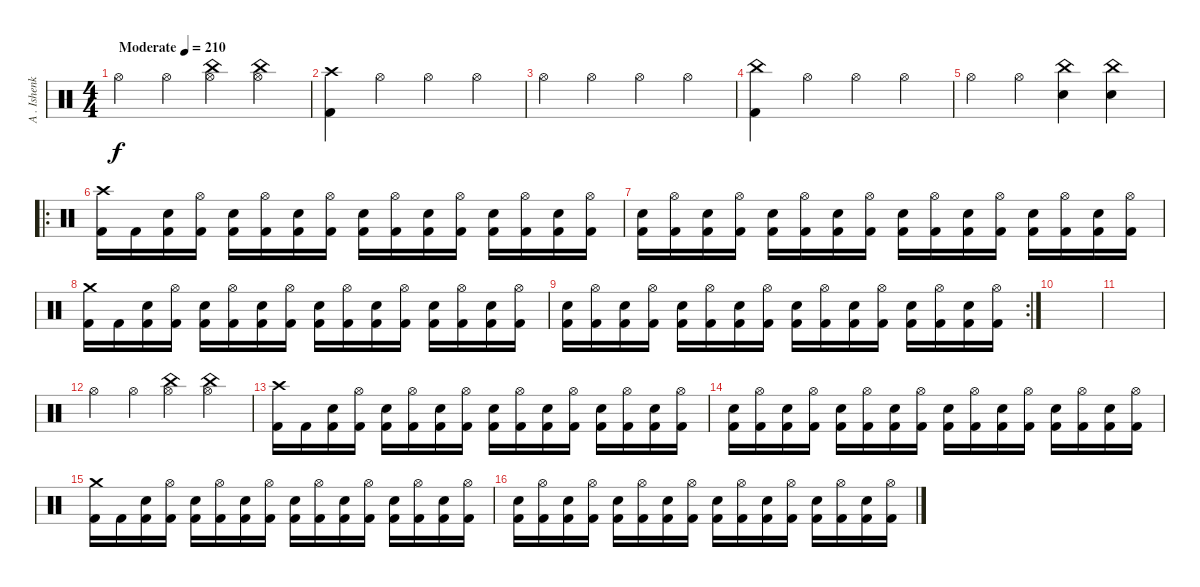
\track ("A . Ishenko" "A . Ishenk") {instrument percussion}
\staff {score}
\articulation defaults
\ts (4 4)
\tempo (210 "Moderate")
\clef neutral
\ks c "Hi-Hat (open)".4{dy f} "Hi-Hat (open)".4
("Hi-Hat (open)" "China (hit)").4 ("Hi-Hat (open)" "China (hit)").4 |
("Crash high (hit)" "Kick (hit) 2").4 "Hi-Hat (open)".4 "Hi-Hat (open)".4 "Hi-Hat (open)".4 |
"Hi-Hat (open)".4 "Hi-Hat (open)".4 "Hi-Hat (open)".4 "Hi-Hat (open)".4 |
("China (hit)" "Kick (hit) 2").4 "Hi-Hat (open)".4 "Hi-Hat (open)".4 "Hi-Hat (open)".4 |
"Hi-Hat (open)".4 "Hi-Hat (open)".4 ("Electric Snare (hit)" "China (hit)").4 ("Electric Snare (hit)" "China (hit)").4 |
\ro
("Crash high (hit)" "Kick (hit) 2").16 "Kick (hit) 2".16 ("Electric Snare (hit)" "Kick (hit) 2").16 ("Hi-Hat (open)" "Kick (hit) 2").16 ("Electric Snare (hit)" "Kick (hit) 2").16 ("Hi-Hat (open)" "Kick (hit) 2").16 ("Electric Snare (hit)" "Kick (hit) 2").16 ("Hi-Hat (open)" "Kick (hit) 2").16 ("Electric Snare (hit)" "Kick (hit) 2").16 ("Hi-Hat (open)" "Kick (hit) 2").16 ("Electric Snare (hit)" "Kick (hit) 2").16 ("Hi-Hat (open)" "Kick (hit) 2").16 ("Electric Snare (hit)" "Kick (hit) 2").16 ("Hi-Hat (open)" "Kick (hit) 2").16 ("Electric Snare (hit)" "Kick (hit) 2").16 ("Hi-Hat (open)" "Kick (hit) 2").16 |
("Electric Snare (hit)" "Kick (hit) 2").16 ("Hi-Hat (open)" "Kick (hit) 2").16 ("Electric Snare (hit)" "Kick (hit) 2").16 ("Hi-Hat (open)" "Kick (hit) 2").16 ("Electric Snare (hit)" "Kick (hit) 2").16 ("Hi-Hat (open)" "Kick (hit) 2").16 ("Electric Snare (hit)" "Kick (hit) 2").16 ("Hi-Hat (open)" "Kick (hit) 2").16 ("Electric Snare (hit)" "Kick (hit) 2").16 ("Hi-Hat (open)" "Kick (hit) 2").16 ("Electric Snare (hit)" "Kick (hit) 2").16 ("Hi-Hat (open)" "Kick (hit) 2").16 ("Electric Snare (hit)" "Kick (hit) 2").16 ("Hi-Hat (open)" "Kick (hit) 2").16 ("Electric Snare (hit)" "Kick (hit) 2").16 ("Hi-Hat (open)" "Kick (hit) 2").16 |
("Crash medium (hit)" "Kick (hit) 2").16 "Kick (hit) 2".16 ("Electric Snare (hit)" "Kick (hit) 2").16 ("Hi-Hat (open)" "Kick (hit) 2").16 ("Electric Snare (hit)" "Kick (hit) 2").16 ("Hi-Hat (open)" "Kick (hit) 2").16 ("Electric Snare (hit)" "Kick (hit) 2").16 ("Hi-Hat (open)" "Kick (hit) 2").16 ("Electric Snare (hit)" "Kick (hit) 2").16 ("Hi-Hat (open)" "Kick (hit) 2").16 ("Electric Snare (hit)" "Kick (hit) 2").16 ("Hi-Hat (open)" "Kick (hit) 2").16 ("Electric Snare (hit)" "Kick (hit) 2").16 ("Hi-Hat (open)" "Kick (hit) 2").16 ("Electric Snare (hit)" "Kick (hit) 2").16 ("Hi-Hat (open)" "Kick (hit) 2").16 |
\rc 2
("Electric Snare (hit)" "Kick (hit) 2").16 ("Hi-Hat (open)" "Kick (hit) 2").16 ("Electric Snare (hit)" "Kick (hit) 2").16 ("Hi-Hat (open)" "Kick (hit) 2").16 ("Electric Snare (hit)" "Kick (hit) 2").16 ("Hi-Hat (open)" "Kick (hit) 2").16 ("Electric Snare (hit)" "Kick (hit) 2").16 ("Hi-Hat (open)" "Kick (hit) 2").16 ("Electric Snare (hit)" "Kick (hit) 2").16 ("Hi-Hat (open)" "Kick (hit) 2").16 ("Electric Snare (hit)" "Kick (hit) 2").16 ("Hi-Hat (open)" "Kick (hit) 2").16 ("Electric Snare (hit)" "Kick (hit) 2").16 ("Hi-Hat (open)" "Kick (hit) 2").16 ("Electric Snare (hit)" "Kick (hit) 2").16 ("Hi-Hat (open)" "Kick (hit) 2").16 |
|
|
"Hi-Hat (open)".4 "Hi-Hat (open)".4 ("Hi-Hat (open)" "China (hit)").4 ("Hi-Hat (open)" "China (hit)").4 |
("Crash high (hit)" "Kick (hit) 2").16 "Kick (hit) 2".16 ("Electric Snare (hit)" "Kick (hit) 2").16 ("Hi-Hat (open)" "Kick (hit) 2").16 ("Electric Snare (hit)" "Kick (hit) 2").16 ("Hi-Hat (open)" "Kick (hit) 2").16 ("Electric Snare (hit)" "Kick (hit) 2").16 ("Hi-Hat (open)" "Kick (hit) 2").16 ("Electric Snare (hit)" "Kick (hit) 2").16 ("Hi-Hat (open)" "Kick (hit) 2").16 ("Electric Snare (hit)" "Kick (hit) 2").16 ("Hi-Hat (open)" "Kick (hit) 2").16 ("Electric Snare (hit)" "Kick (hit) 2").16 ("Hi-Hat (open)" "Kick (hit) 2").16 ("Electric Snare (hit)" "Kick (hit) 2").16 ("Hi-Hat (open)" "Kick (hit) 2").16 |
("Electric Snare (hit)" "Kick (hit) 2").16 ("Hi-Hat (open)" "Kick (hit) 2").16 ("Electric Snare (hit)" "Kick (hit) 2").16 ("Hi-Hat (open)" "Kick (hit) 2").16 ("Electric Snare (hit)" "Kick (hit) 2").16 ("Hi-Hat (open)" "Kick (hit) 2").16 ("Electric Snare (hit)" "Kick (hit) 2").16 ("Hi-Hat (open)" "Kick (hit) 2").16 ("Electric Snare (hit)" "Kick (hit) 2").16 ("Hi-Hat (open)" "Kick (hit) 2").16 ("Electric Snare (hit)" "Kick (hit) 2").16 ("Hi-Hat (open)" "Kick (hit) 2").16 ("Electric Snare (hit)" "Kick (hit) 2").16 ("Hi-Hat (open)" "Kick (hit) 2").16 ("Electric Snare (hit)" "Kick (hit) 2").16 ("Hi-Hat (open)" "Kick (hit) 2").16 |
("Crash medium (hit)" "Kick (hit) 2").16 "Kick (hit) 2".16 ("Electric Snare (hit)" "Kick (hit) 2").16 ("Hi-Hat (open)" "Kick (hit) 2").16 ("Electric Snare (hit)" "Kick (hit) 2").16 ("Hi-Hat (open)" "Kick (hit) 2").16 ("Electric Snare (hit)" "Kick (hit) 2").16 ("Hi-Hat (open)" "Kick (hit) 2").16 ("Electric Snare (hit)" "Kick (hit) 2").16 ("Hi-Hat (open)" "Kick (hit) 2").16 ("Electric Snare (hit)" "Kick (hit) 2").16 ("Hi-Hat (open)" "Kick (hit) 2").16 ("Electric Snare (hit)" "Kick (hit) 2").16 ("Hi-Hat (open)" "Kick (hit) 2").16 ("Electric Snare (hit)" "Kick (hit) 2").16 ("Hi-Hat (open)" "Kick (hit) 2").16 |
("Electric Snare (hit)" "Kick (hit) 2").16 ("Hi-Hat (open)" "Kick (hit) 2").16 ("Electric Snare (hit)" "Kick (hit) 2").16 ("Hi-Hat (open)" "Kick (hit) 2").16 ("Electric Snare (hit)" "Kick (hit) 2").16 ("Hi-Hat (open)" "Kick (hit) 2").16 ("Electric Snare (hit)" "Kick (hit) 2").16 ("Hi-Hat (open)" "Kick (hit) 2").16 ("Electric Snare (hit)" "Kick (hit) 2").16 ("Hi-Hat (open)" "Kick (hit) 2").16 ("Electric Snare (hit)" "Kick (hit) 2").16 ("Hi-Hat (open)" "Kick (hit) 2").16 ("Electric Snare (hit)" "Kick (hit) 2").16 ("Hi-Hat (open)" "Kick (hit) 2").16 ("Electric Snare (hit)" "Kick (hit) 2").16 ("Hi-Hat (open)" "Kick (hit) 2").16
